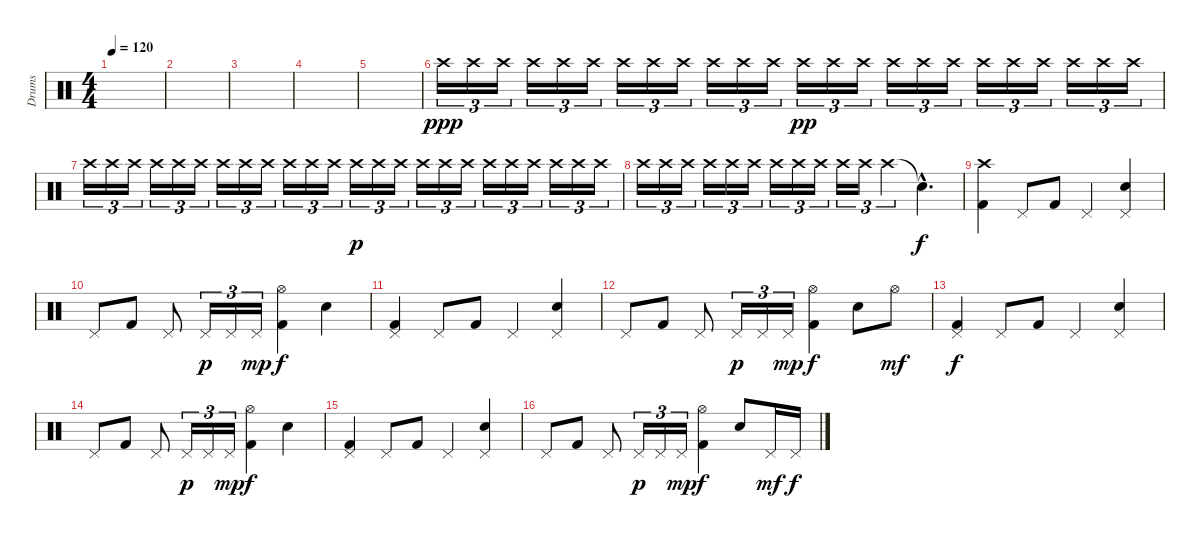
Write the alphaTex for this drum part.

\track ("Drums" "Drums") {instrument percussion}
\staff {score}
\articulation defaults
\ts (4 4)
\tempo 120
\clef neutral
\ks c
|
|
|
|
|
"Crash high (hit)".16{tu (3 2) dy ppp} "Crash high (hit)".16{tu (3 2)} "Crash high (hit)".16{tu (3 2)} "Crash high (hit)".16{tu (3 2)} "Crash high (hit)".16{tu (3 2)} "Crash high (hit)".16{tu (3 2)} "Crash high (hit)".16{tu (3 2)} "Crash high (hit)".16{tu (3 2)} "Crash high (hit)".16{tu (3 2)} "Crash high (hit)".16{tu (3 2)} "Crash high (hit)".16{tu (3 2)} "Crash high (hit)".16{tu (3 2)} "Crash high (hit)".16{tu (3 2) dy pp} "Crash high (hit)".16{tu (3 2)} "Crash high (hit)".16{tu (3 2)} "Crash high (hit)".16{tu (3 2)} "Crash high (hit)".16{tu (3 2)} "Crash high (hit)".16{tu (3 2)} "Crash high (hit)".16{tu (3 2)} "Crash high (hit)".16{tu (3 2)} "Crash high (hit)".16{tu (3 2)} "Crash high (hit)".16{tu (3 2)} "Crash high (hit)".16{tu (3 2)} "Crash high (hit)".16{tu (3 2)} |
"Crash high (hit)".16{tu (3 2)} "Crash high (hit)".16{tu (3 2)} "Crash high (hit)".16{tu (3 2)} "Crash high (hit)".16{tu (3 2)} "Crash high (hit)".16{tu (3 2)} "Crash high (hit)".16{tu (3 2)} "Crash high (hit)".16{tu (3 2)} "Crash high (hit)".16{tu (3 2)} "Crash high (hit)".16{tu (3 2)} "Crash high (hit)".16{tu (3 2)} "Crash high (hit)".16{tu (3 2)} "Crash high (hit)".16{tu (3 2)} "Crash high (hit)".16{tu (3 2) dy p} "Crash high (hit)".16{tu (3 2)} "Crash high (hit)".16{tu (3 2)} "Crash high (hit)".16{tu (3 2)} "Crash high (hit)".16{tu (3 2)} "Crash high (hit)".16{tu (3 2)} "Crash high (hit)".16{tu (3 2)} "Crash high (hit)".16{tu (3 2)} "Crash high (hit)".16{tu (3 2)} "Crash high (hit)".16{tu (3 2)} "Crash high (hit)".16{tu (3 2)} "Crash high (hit)".16{tu (3 2)} |
"Crash high (hit)".16{tu (3 2)} "Crash high (hit)".16{tu (3 2)} "Crash high (hit)".16{tu (3 2)} "Crash high (hit)".16{tu (3 2)} "Crash high (hit)".16{tu (3 2)} "Crash high (hit)".16{tu (3 2)} "Crash high (hit)".16{tu (3 2)} "Crash high (hit)".16{tu (3 2)} "Crash high (hit)".16{tu (3 2)} "Crash high (hit)".16{tu (3 2)} "Crash high (hit)".16{tu (3 2)} "Crash high (hit)".4{tu (3 2)} "Snare (hit)"{hac t}.4{d dy f} |
("Kick (hit) 2" "Crash high (hit)").4 "Pedal Hi-Hat (hit)".8 "Kick (hit) 2".8 "Pedal Hi-Hat (hit)".4 ("Snare (hit) 2" "Pedal Hi-Hat (hit)").4 |
"Pedal Hi-Hat (hit)".8 "Kick (hit) 2".8 "Pedal Hi-Hat (hit)".8 "Pedal Hi-Hat (hit)".16{tu (3 2) dy p} "Pedal Hi-Hat (hit)".16{tu (3 2)} "Pedal Hi-Hat (hit)".16{tu (3 2) dy mp} ("Kick (hit) 2" "Hi-Hat (open)").4{dy f} "Snare (hit) 2".4 |
("Kick (hit) 2" "Pedal Hi-Hat (hit)").4 "Pedal Hi-Hat (hit)".8 "Kick (hit) 2".8 "Pedal Hi-Hat (hit)".4 ("Snare (hit) 2" "Pedal Hi-Hat (hit)").4 |
"Pedal Hi-Hat (hit)".8 "Kick (hit) 2".8 "Pedal Hi-Hat (hit)".8 "Pedal Hi-Hat (hit)".16{tu (3 2) dy p} "Pedal Hi-Hat (hit)".16{tu (3 2)} "Pedal Hi-Hat (hit)".16{tu (3 2) dy mp} ("Kick (hit) 2" "Hi-Hat (open)").4{dy f} "Snare (hit) 2".8 "Hi-Hat (open)".8{dy mf} |
("Kick (hit) 2" "Pedal Hi-Hat (hit)").4{dy f} "Pedal Hi-Hat (hit)".8 "Kick (hit) 2".8 "Pedal Hi-Hat (hit)".4 ("Snare (hit) 2" "Pedal Hi-Hat (hit)").4 |
"Pedal Hi-Hat (hit)".8 "Kick (hit) 2".8 "Pedal Hi-Hat (hit)".8 "Pedal Hi-Hat (hit)".16{tu (3 2) dy p} "Pedal Hi-Hat (hit)".16{tu (3 2)} "Pedal Hi-Hat (hit)".16{tu (3 2) dy mp} ("Kick (hit) 2" "Hi-Hat (open)").4{dy f} "Snare (hit) 2".4 |
("Kick (hit) 2" "Pedal Hi-Hat (hit)").4 "Pedal Hi-Hat (hit)".8 "Kick (hit) 2".8 "Pedal Hi-Hat (hit)".4 ("Snare (hit) 2" "Pedal Hi-Hat (hit)").4 |
"Pedal Hi-Hat (hit)".8 "Kick (hit) 2".8 "Pedal Hi-Hat (hit)".8 "Pedal Hi-Hat (hit)".16{tu (3 2) dy p} "Pedal Hi-Hat (hit)".16{tu (3 2)} "Pedal Hi-Hat (hit)".16{tu (3 2) dy mp} ("Kick (hit) 2" "Hi-Hat (open)").4{dy f} "Snare (hit) 2".8 "Pedal Hi-Hat (hit)".16{dy mf} "Pedal Hi-Hat (hit)".16{dy f}
